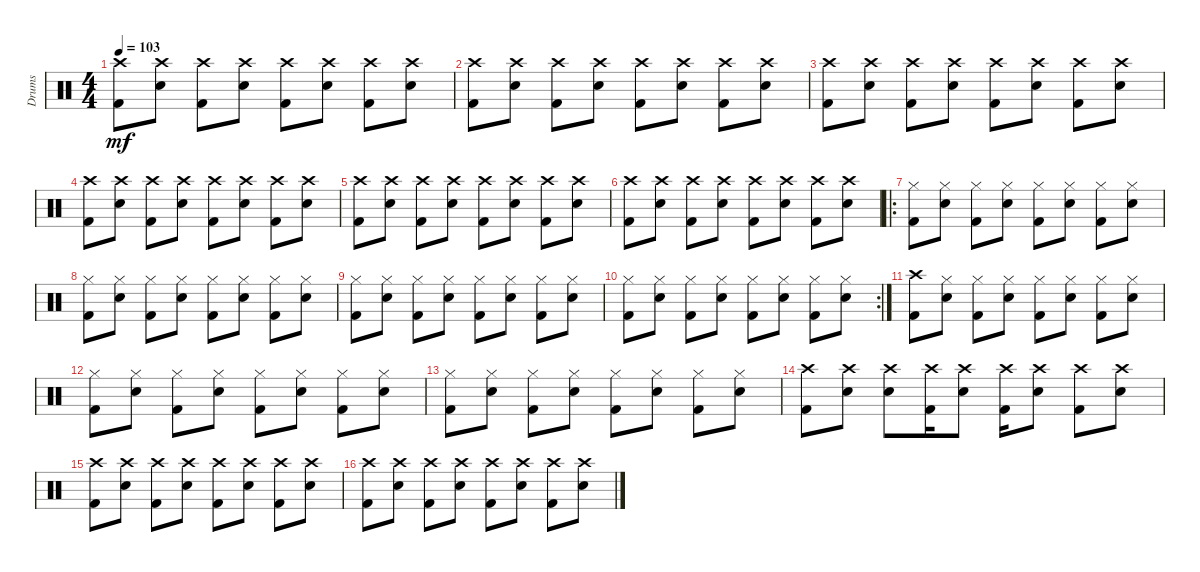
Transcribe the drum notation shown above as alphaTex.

\track ("Drums" "Drums") {instrument percussion}
\staff {score}
\articulation defaults
\ts (4 4)
\tempo 103
\clef neutral
\ks c
("Crash high (hit)" "Kick (hit) 2").8{dy mf} ("Crash high (hit)" "Snare (hit) 2").8 ("Crash high (hit)" "Kick (hit) 2").8 ("Crash high (hit)" "Snare (hit) 2").8 ("Crash high (hit)" "Kick (hit) 2").8 ("Crash high (hit)" "Snare (hit) 2").8 ("Crash high (hit)" "Kick (hit) 2").8 ("Crash high (hit)" "Snare (hit) 2").8 |
("Crash high (hit)" "Kick (hit) 2").8 ("Crash high (hit)" "Snare (hit) 2").8 ("Crash high (hit)" "Kick (hit) 2").8 ("Crash high (hit)" "Snare (hit) 2").8 ("Crash high (hit)" "Kick (hit) 2").8 ("Crash high (hit)" "Snare (hit) 2").8 ("Crash high (hit)" "Kick (hit) 2").8 ("Crash high (hit)" "Snare (hit) 2").8 |
("Crash high (hit)" "Kick (hit) 2").8 ("Crash high (hit)" "Snare (hit) 2").8 ("Crash high (hit)" "Kick (hit) 2").8 ("Crash high (hit)" "Snare (hit) 2").8 ("Crash high (hit)" "Kick (hit) 2").8 ("Crash high (hit)" "Snare (hit) 2").8 ("Crash high (hit)" "Kick (hit) 2").8 ("Crash high (hit)" "Snare (hit) 2").8 |
("Crash high (hit)" "Kick (hit) 2").8 ("Crash high (hit)" "Snare (hit) 2").8 ("Crash high (hit)" "Kick (hit) 2").8 ("Crash high (hit)" "Snare (hit) 2").8 ("Crash high (hit)" "Kick (hit) 2").8 ("Crash high (hit)" "Snare (hit) 2").8 ("Crash high (hit)" "Kick (hit) 2").8 ("Crash high (hit)" "Snare (hit) 2").8 |
("Crash high (hit)" "Kick (hit) 2").8 ("Crash high (hit)" "Snare (hit) 2").8 ("Crash high (hit)" "Kick (hit) 2").8 ("Crash high (hit)" "Snare (hit) 2").8 ("Crash high (hit)" "Kick (hit) 2").8 ("Crash high (hit)" "Snare (hit) 2").8 ("Crash high (hit)" "Kick (hit) 2").8 ("Crash high (hit)" "Snare (hit) 2").8 |
("Crash high (hit)" "Kick (hit) 2").8 ("Crash high (hit)" "Snare (hit) 2").8 ("Crash high (hit)" "Kick (hit) 2").8 ("Crash high (hit)" "Snare (hit) 2").8 ("Crash high (hit)" "Kick (hit) 2").8 ("Crash high (hit)" "Snare (hit) 2").8 ("Crash high (hit)" "Kick (hit) 2").8 ("Crash high (hit)" "Snare (hit) 2").8 |
\ro
("Hi-Hat (closed)" "Kick (hit) 2").8 ("Hi-Hat (closed)" "Snare (hit) 2").8 ("Hi-Hat (closed)" "Kick (hit) 2").8 ("Hi-Hat (closed)" "Snare (hit) 2").8 ("Hi-Hat (closed)" "Kick (hit) 2").8 ("Hi-Hat (closed)" "Snare (hit) 2").8 ("Hi-Hat (closed)" "Kick (hit) 2").8 ("Hi-Hat (closed)" "Snare (hit) 2").8 |
("Hi-Hat (closed)" "Kick (hit) 2").8 ("Hi-Hat (closed)" "Snare (hit) 2").8 ("Hi-Hat (closed)" "Kick (hit) 2").8 ("Hi-Hat (closed)" "Snare (hit) 2").8 ("Hi-Hat (closed)" "Kick (hit) 2").8 ("Hi-Hat (closed)" "Snare (hit) 2").8 ("Hi-Hat (closed)" "Kick (hit) 2").8 ("Hi-Hat (closed)" "Snare (hit) 2").8 |
("Hi-Hat (closed)" "Kick (hit) 2").8 ("Hi-Hat (closed)" "Snare (hit) 2").8 ("Hi-Hat (closed)" "Kick (hit) 2").8 ("Hi-Hat (closed)" "Snare (hit) 2").8 ("Hi-Hat (closed)" "Kick (hit) 2").8 ("Hi-Hat (closed)" "Snare (hit) 2").8 ("Hi-Hat (closed)" "Kick (hit) 2").8 ("Hi-Hat (closed)" "Snare (hit) 2").8 |
\rc 2
("Hi-Hat (closed)" "Kick (hit) 2").8 ("Hi-Hat (closed)" "Snare (hit) 2").8 ("Hi-Hat (closed)" "Kick (hit) 2").8 ("Hi-Hat (closed)" "Snare (hit) 2").8 ("Hi-Hat (closed)" "Kick (hit) 2").8 ("Hi-Hat (closed)" "Snare (hit) 2").8 ("Hi-Hat (closed)" "Kick (hit) 2").8 ("Hi-Hat (closed)" "Snare (hit) 2").8 |
("Crash high (hit)" "Kick (hit) 2").8 ("Hi-Hat (closed)" "Snare (hit) 2").8 ("Hi-Hat (closed)" "Kick (hit) 2").8 ("Hi-Hat (closed)" "Snare (hit) 2").8 ("Hi-Hat (closed)" "Kick (hit) 2").8 ("Hi-Hat (closed)" "Snare (hit) 2").8 ("Hi-Hat (closed)" "Kick (hit) 2").8 ("Hi-Hat (closed)" "Snare (hit) 2").8 |
("Hi-Hat (closed)" "Kick (hit) 2").8 ("Hi-Hat (closed)" "Snare (hit) 2").8 ("Hi-Hat (closed)" "Kick (hit) 2").8 ("Hi-Hat (closed)" "Snare (hit) 2").8 ("Hi-Hat (closed)" "Kick (hit) 2").8 ("Hi-Hat (closed)" "Snare (hit) 2").8 ("Hi-Hat (closed)" "Kick (hit) 2").8 ("Hi-Hat (closed)" "Snare (hit) 2").8 |
("Hi-Hat (closed)" "Kick (hit) 2").8 ("Hi-Hat (closed)" "Snare (hit) 2").8 ("Hi-Hat (closed)" "Kick (hit) 2").8 ("Hi-Hat (closed)" "Snare (hit) 2").8 ("Hi-Hat (closed)" "Kick (hit) 2").8 ("Hi-Hat (closed)" "Snare (hit) 2").8 ("Hi-Hat (closed)" "Kick (hit) 2").8 ("Hi-Hat (closed)" "Snare (hit) 2").8 |
("Crash high (hit)" "Kick (hit) 2").8 ("Crash high (hit)" "Snare (hit) 2").8 ("Crash high (hit)" "Snare (hit) 2").8 ("Crash high (hit)" "Kick (hit) 2").16 ("Crash high (hit)" "Snare (hit) 2").8 ("Crash high (hit)" "Kick (hit) 2").16 ("Crash high (hit)" "Snare (hit) 2").8 ("Crash high (hit)" "Kick (hit) 2").8 ("Crash high (hit)" "Snare (hit) 2").8 |
("Crash high (hit)" "Kick (hit) 2").8 ("Crash high (hit)" "Snare (hit) 2").8 ("Crash high (hit)" "Kick (hit) 2").8 ("Crash high (hit)" "Snare (hit) 2").8 ("Crash high (hit)" "Kick (hit) 2").8 ("Crash high (hit)" "Snare (hit) 2").8 ("Crash high (hit)" "Kick (hit) 2").8 ("Crash high (hit)" "Snare (hit) 2").8 |
("Crash high (hit)" "Kick (hit) 2").8 ("Crash high (hit)" "Snare (hit) 2").8 ("Crash high (hit)" "Kick (hit) 2").8 ("Crash high (hit)" "Snare (hit) 2").8 ("Crash high (hit)" "Kick (hit) 2").8 ("Crash high (hit)" "Snare (hit) 2").8 ("Crash high (hit)" "Kick (hit) 2").8 ("Crash high (hit)" "Snare (hit) 2").8
